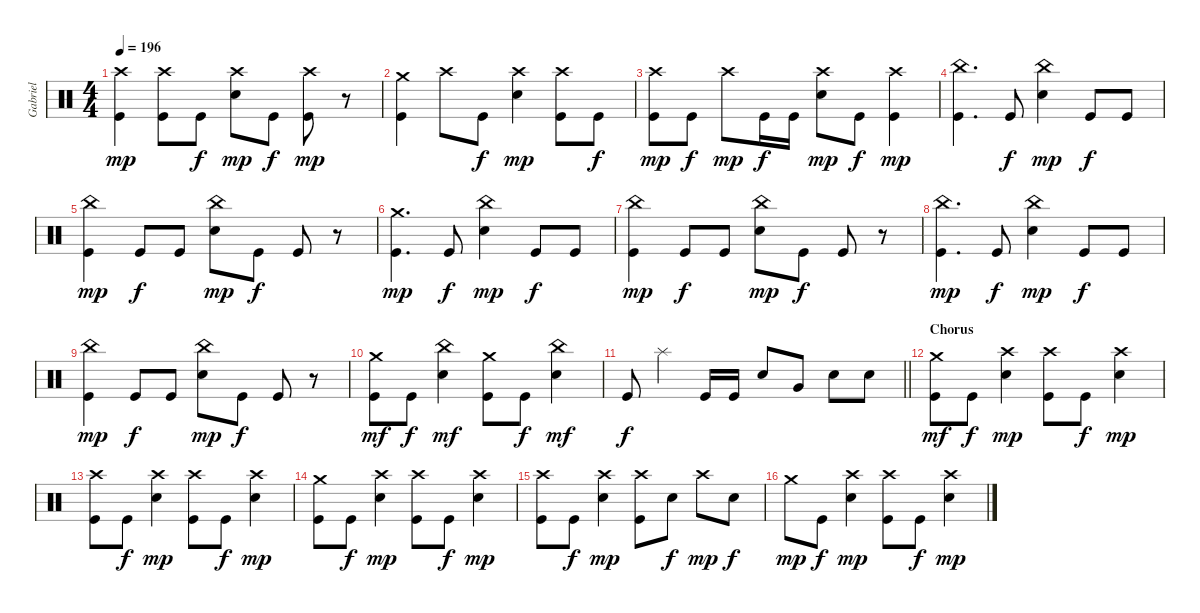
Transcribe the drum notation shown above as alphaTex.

\track ("Gabriel" "Gabriel") {instrument percussion}
\staff {score}
\articulation defaults
\ts (4 4)
\tempo 196
\clef neutral
\ks aminor
("Crash high (hit)" "Kick (hit)").4{dy mp} ("Crash high (hit)" "Kick (hit)").8 "Kick (hit)".8{dy f} ("Crash high (hit)" "Snare (hit) 2").8{dy mp} "Kick (hit)".8{dy f} ("Crash high (hit)" "Kick (hit)").8{dy mp} r.8 |
("Crash medium (hit)" "Kick (hit)").4 "Crash high (hit)".8 "Kick (hit)".8{dy f} ("Crash high (hit)" "Snare (hit) 2").4{dy mp} ("Crash high (hit)" "Kick (hit)").8 "Kick (hit)".8{dy f} |
("Crash high (hit)" "Kick (hit)").8{dy mp} "Kick (hit)".8{dy f} "Crash high (hit)".8{dy mp} "Kick (hit)".16{dy f} "Kick (hit)".16 ("Crash high (hit)" "Snare (hit) 2").8{dy mp} "Kick (hit)".8{dy f} ("Crash high (hit)" "Kick (hit)").4{dy mp} |
("China (hit)" "Kick (hit)").4{d} "Kick (hit)".8{dy f} ("China (hit)" "Snare (hit) 2").4{dy mp} "Kick (hit)".8{dy f} "Kick (hit)".8 |
("China (hit)" "Kick (hit)").4{dy mp} "Kick (hit)".8{dy f} "Kick (hit)".8 ("China (hit)" "Snare (hit) 2").8{dy mp} "Kick (hit)".8{dy f} "Kick (hit)".8 r.8 |
("Crash medium (hit)" "Kick (hit)").4{d dy mp} "Kick (hit)".8{dy f} ("China (hit)" "Snare (hit) 2").4{dy mp} "Kick (hit)".8{dy f} "Kick (hit)".8 |
("China (hit)" "Kick (hit)").4{dy mp} "Kick (hit)".8{dy f} "Kick (hit)".8 ("China (hit)" "Snare (hit) 2").8{dy mp} "Kick (hit)".8{dy f} "Kick (hit)".8 r.8 |
("China (hit)" "Kick (hit)").4{d dy mp} "Kick (hit)".8{dy f} ("China (hit)" "Snare (hit) 2").4{dy mp} "Kick (hit)".8{dy f} "Kick (hit)".8 |
("China (hit)" "Kick (hit)").4{dy mp} "Kick (hit)".8{dy f} "Kick (hit)".8 ("China (hit)" "Snare (hit) 2").8{dy mp} "Kick (hit)".8{dy f} "Kick (hit)".8 r.8 |
("Crash medium (hit)" "Kick (hit)").8{dy mf} "Kick (hit)".8{dy f} ("China (hit)" "Snare (hit) 2").4{dy mf} ("Crash medium (hit)" "Kick (hit)").8 "Kick (hit)".8{dy f} ("China (hit)" "Snare (hit) 2").4{dy mf} |
\barLineRight lightlight "Kick (hit)".8{dy f} "Splash (hit)".4 "Kick (hit)".16 "Kick (hit)".16 "Snare (hit) 2".8 "Very Low Tom (hit)".8 "Snare (hit) 2".8 "Snare (hit) 2".8
|
\section ("" "Chorus")
("Crash medium (hit)" "Kick (hit)").8{dy mf} "Kick (hit)".8{dy f} ("Crash high (hit)" "Snare (hit) 2").4{dy mp} ("Crash high (hit)" "Kick (hit)").8 "Kick (hit)".8{dy f} ("Crash high (hit)" "Snare (hit) 2").4{dy mp} |
("Crash high (hit)" "Kick (hit)").8 "Kick (hit)".8{dy f} ("Crash high (hit)" "Snare (hit) 2").4{dy mp} ("Crash high (hit)" "Kick (hit)").8 "Kick (hit)".8{dy f} ("Crash high (hit)" "Snare (hit) 2").4{dy mp} |
("Crash medium (hit)" "Kick (hit)").8 "Kick (hit)".8{dy f} ("Crash high (hit)" "Snare (hit) 2").4{dy mp} ("Crash high (hit)" "Kick (hit)").8 "Kick (hit)".8{dy f} ("Crash high (hit)" "Snare (hit) 2").4{dy mp} |
("Crash high (hit)" "Kick (hit)").8 "Kick (hit)".8{dy f} ("Crash high (hit)" "Snare (hit) 2").4{dy mp} ("Crash high (hit)" "Kick (hit)").8 "Snare (hit) 2".8{dy f} "Crash high (hit)".8{dy mp} "Snare (hit) 2".8{dy f} |
"Crash medium (hit)".8{dy mp} "Kick (hit)".8{dy f} ("Crash high (hit)" "Snare (hit) 2").4{dy mp} ("Crash high (hit)" "Kick (hit)").8 "Kick (hit)".8{dy f} ("Crash high (hit)" "Snare (hit) 2").4{dy mp}
